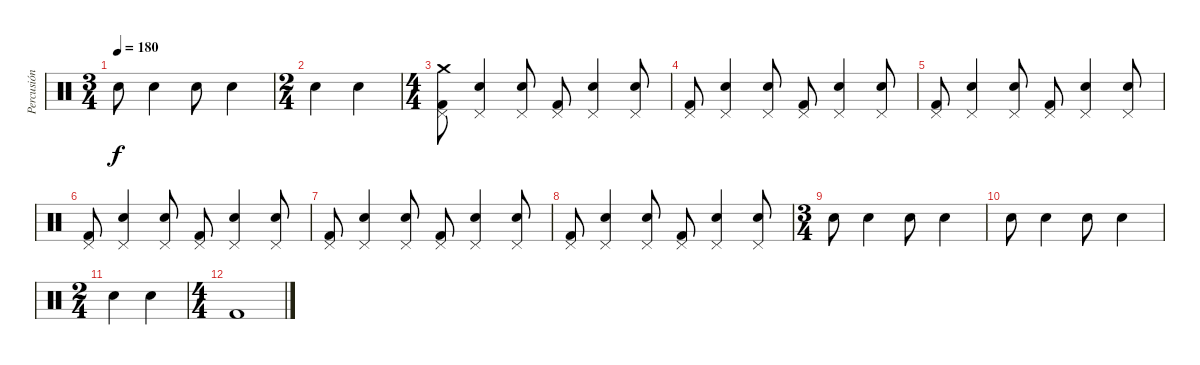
\track ("Percusión" "Percusión") {instrument percussion}
\staff {score}
\articulation defaults
\ts (3 4)
\tempo 180
\clef neutral
\ks c "Electric Snare (hit)".8{dy f} "Electric Snare (hit)".4 "Electric Snare (hit)".8 "Electric Snare (hit)".4
|
\ts (2 4)
"Electric Snare (hit)".4 "Electric Snare (hit)".4 |
\ts (4 4)
("Kick (hit) 2" "Pedal Hi-Hat (hit)" "Crash medium (hit)").8 ("Electric Snare (hit)" "Pedal Hi-Hat (hit)").4 ("Electric Snare (hit)" "Pedal Hi-Hat (hit)").8 ("Kick (hit) 2" "Pedal Hi-Hat (hit)").8 ("Electric Snare (hit)" "Pedal Hi-Hat (hit)").4 ("Electric Snare (hit)" "Pedal Hi-Hat (hit)").8 |
("Kick (hit) 2" "Pedal Hi-Hat (hit)").8 ("Electric Snare (hit)" "Pedal Hi-Hat (hit)").4 ("Electric Snare (hit)" "Pedal Hi-Hat (hit)").8 ("Kick (hit) 2" "Pedal Hi-Hat (hit)").8 ("Electric Snare (hit)" "Pedal Hi-Hat (hit)").4 ("Electric Snare (hit)" "Pedal Hi-Hat (hit)").8 |
("Kick (hit) 2" "Pedal Hi-Hat (hit)").8 ("Electric Snare (hit)" "Pedal Hi-Hat (hit)").4 ("Electric Snare (hit)" "Pedal Hi-Hat (hit)").8 ("Kick (hit) 2" "Pedal Hi-Hat (hit)").8 ("Electric Snare (hit)" "Pedal Hi-Hat (hit)").4 ("Electric Snare (hit)" "Pedal Hi-Hat (hit)").8 |
("Kick (hit) 2" "Pedal Hi-Hat (hit)").8 ("Electric Snare (hit)" "Pedal Hi-Hat (hit)").4 ("Electric Snare (hit)" "Pedal Hi-Hat (hit)").8 ("Kick (hit) 2" "Pedal Hi-Hat (hit)").8 ("Electric Snare (hit)" "Pedal Hi-Hat (hit)").4 ("Electric Snare (hit)" "Pedal Hi-Hat (hit)").8 |
("Kick (hit) 2" "Pedal Hi-Hat (hit)").8 ("Electric Snare (hit)" "Pedal Hi-Hat (hit)").4 ("Electric Snare (hit)" "Pedal Hi-Hat (hit)").8 ("Kick (hit) 2" "Pedal Hi-Hat (hit)").8 ("Electric Snare (hit)" "Pedal Hi-Hat (hit)").4 ("Electric Snare (hit)" "Pedal Hi-Hat (hit)").8 |
("Kick (hit) 2" "Pedal Hi-Hat (hit)").8 ("Electric Snare (hit)" "Pedal Hi-Hat (hit)").4 ("Electric Snare (hit)" "Pedal Hi-Hat (hit)").8 ("Kick (hit) 2" "Pedal Hi-Hat (hit)").8 ("Electric Snare (hit)" "Pedal Hi-Hat (hit)").4 ("Electric Snare (hit)" "Pedal Hi-Hat (hit)").8 |
\ts (3 4)
"Electric Snare (hit)".8 "Electric Snare (hit)".4 "Electric Snare (hit)".8 "Electric Snare (hit)".4 |
"Electric Snare (hit)".8 "Electric Snare (hit)".4 "Electric Snare (hit)".8 "Electric Snare (hit)".4 |
\ts (2 4)
"Electric Snare (hit)".4 "Electric Snare (hit)".4 |
\ts (4 4)
"Kick (hit) 2".1
